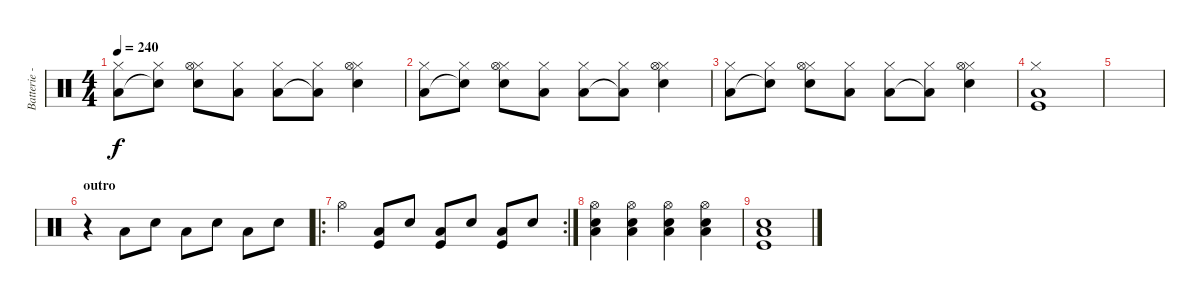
\track ("Batterie - Guillaume" "Batterie -") {instrument percussion}
\staff {score}
\articulation defaults
\ts (4 4)
\tempo 240
\clef neutral
\ks c
("Hi-Hat (closed)" "Low Tom (hit)").8{dy f} ("Hi-Hat (closed)" "Snare (hit)"{t}).8 ("Hi-Hat (closed)" "Hi-Hat (open)" "Electric Snare (hit)").8 ("Hi-Hat (closed)" "Low Tom (hit)").8 ("Hi-Hat (closed)" "Low Tom (hit)").8 ("Hi-Hat (closed)" "Low Tom (hit)"{t}).8 ("Hi-Hat (closed)" "Hi-Hat (open)" "Electric Snare (hit)").4 |
("Hi-Hat (closed)" "Low Tom (hit)").8 ("Hi-Hat (closed)" "Snare (hit)"{t}).8 ("Hi-Hat (closed)" "Hi-Hat (open)" "Electric Snare (hit)").8 ("Hi-Hat (closed)" "Low Tom (hit)").8 ("Hi-Hat (closed)" "Low Tom (hit)").8 ("Hi-Hat (closed)" "Low Tom (hit)"{t}).8 ("Hi-Hat (closed)" "Hi-Hat (open)" "Electric Snare (hit)").4 |
("Hi-Hat (closed)" "Low Tom (hit)").8 ("Hi-Hat (closed)" "Snare (hit)"{t}).8 ("Hi-Hat (closed)" "Hi-Hat (open)" "Electric Snare (hit)").8 ("Hi-Hat (closed)" "Low Tom (hit)").8 ("Hi-Hat (closed)" "Low Tom (hit)").8 ("Hi-Hat (closed)" "Low Tom (hit)"{t}).8 ("Hi-Hat (closed)" "Hi-Hat (open)" "Electric Snare (hit)").4 |
("Hi-Hat (closed)" "Low Tom (hit)" "Kick (hit)").1 |
|
\section ("" "outro")
r.4 "Low Tom (hit)".8 "Electric Snare (hit)".8 "Low Tom (hit)".8 "Electric Snare (hit)".8 "Low Tom (hit)".8 "Electric Snare (hit)".8 |
\ro
\rc 2 "Hi-Hat (open)".4
("Low Tom (hit)" "Kick (hit)").8 "Electric Snare (hit)".8 ("Low Tom (hit)" "Kick (hit)").8 "Electric Snare (hit)".8 ("Low Tom (hit)" "Kick (hit)").8 "Electric Snare (hit)".8 |
("Hi-Hat (open)" "Low Tom (hit)" "Electric Snare (hit)").4 ("Hi-Hat (open)" "Low Tom (hit)" "Electric Snare (hit)").4 ("Hi-Hat (open)" "Low Tom (hit)" "Electric Snare (hit)").4 ("Hi-Hat (open)" "Low Tom (hit)" "Electric Snare (hit)").4 |
("Low Tom (hit)" "Electric Snare (hit)" "Kick (hit)").1
